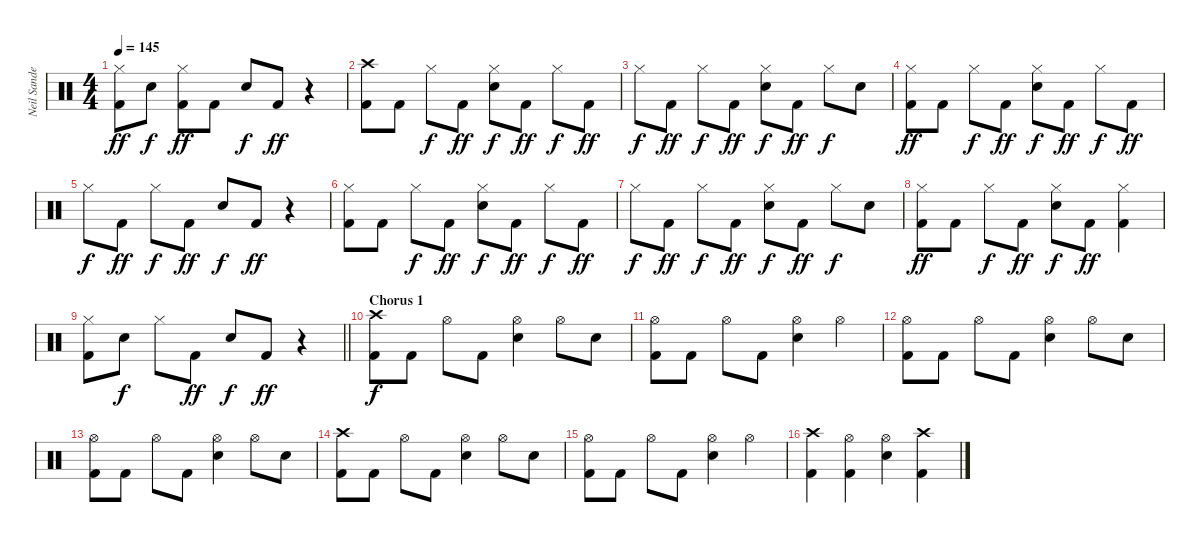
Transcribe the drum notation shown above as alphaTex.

\track ("Neil Sanderson" "Neil Sande") {instrument percussion}
\staff {score}
\articulation defaults
\ts (4 4)
\tempo 145
\clef neutral
\ks c
("Hi-Hat (closed)" "Kick (hit) 2").8{dy ff} "Electric Snare (hit)".8{dy f} ("Hi-Hat (closed)" "Kick (hit) 2").8{dy ff} "Kick (hit) 2".8 "Electric Snare (hit)".8{dy f} "Kick (hit) 2".8{dy ff} r.4 |
("Crash high (hit)" "Kick (hit) 2").8 "Kick (hit) 2".8 "Hi-Hat (closed)".8{dy f} "Kick (hit) 2".8{dy ff} ("Hi-Hat (closed)" "Electric Snare (hit)").8{dy f} "Kick (hit) 2".8{dy ff} "Hi-Hat (closed)".8{dy f} "Kick (hit) 2".8{dy ff} |
"Hi-Hat (closed)".8{dy f} "Kick (hit) 2".8{dy ff} "Hi-Hat (closed)".8{dy f} "Kick (hit) 2".8{dy ff} ("Hi-Hat (closed)" "Electric Snare (hit)").8{dy f} "Kick (hit) 2".8{dy ff} "Hi-Hat (closed)".8{dy f} "Electric Snare (hit)".8 |
("Hi-Hat (closed)" "Kick (hit) 2").8{dy ff} "Kick (hit) 2".8 "Hi-Hat (closed)".8{dy f} "Kick (hit) 2".8{dy ff} ("Hi-Hat (closed)" "Electric Snare (hit)").8{dy f} "Kick (hit) 2".8{dy ff} "Hi-Hat (closed)".8{dy f} "Kick (hit) 2".8{dy ff} |
"Hi-Hat (closed)".8{dy f} "Kick (hit) 2".8{dy ff} "Hi-Hat (closed)".8{dy f} "Kick (hit) 2".8{dy ff} "Electric Snare (hit)".8{dy f} "Kick (hit) 2".8{dy ff} r.4 |
("Hi-Hat (closed)" "Kick (hit) 2").8 "Kick (hit) 2".8 "Hi-Hat (closed)".8{dy f} "Kick (hit) 2".8{dy ff} ("Hi-Hat (closed)" "Electric Snare (hit)").8{dy f} "Kick (hit) 2".8{dy ff} "Hi-Hat (closed)".8{dy f} "Kick (hit) 2".8{dy ff} |
"Hi-Hat (closed)".8{dy f} "Kick (hit) 2".8{dy ff} "Hi-Hat (closed)".8{dy f} "Kick (hit) 2".8{dy ff} ("Hi-Hat (closed)" "Electric Snare (hit)").8{dy f} "Kick (hit) 2".8{dy ff} "Hi-Hat (closed)".8{dy f} "Electric Snare (hit)".8 |
("Hi-Hat (closed)" "Kick (hit) 2").8{dy ff} "Kick (hit) 2".8 "Hi-Hat (closed)".8{dy f} "Kick (hit) 2".8{dy ff} ("Hi-Hat (closed)" "Electric Snare (hit)").8{dy f} "Kick (hit) 2".8{dy ff} ("Hi-Hat (closed)" "Kick (hit) 2").4 |
\barLineRight lightlight
("Hi-Hat (closed)" "Kick (hit) 2").8 "Electric Snare (hit)".8{dy f} "Hi-Hat (closed)".8 "Kick (hit) 2".8{dy ff} "Electric Snare (hit)".8{dy f} "Kick (hit) 2".8{dy ff} r.4 |
\section ("" "Chorus 1")
("Crash high (hit)" "Kick (hit) 2").8{dy f} "Kick (hit) 2".8 "Hi-Hat (open)".8 "Kick (hit) 2".8 ("Hi-Hat (open)" "Electric Snare (hit)").4 "Hi-Hat (open)".8 "Electric Snare (hit)".8 |
("Hi-Hat (open)" "Kick (hit) 2").8 "Kick (hit) 2".8 "Hi-Hat (open)".8 "Kick (hit) 2".8 ("Hi-Hat (open)" "Electric Snare (hit)").4 "Hi-Hat (open)".4 |
("Hi-Hat (open)" "Kick (hit) 2").8 "Kick (hit) 2".8 "Hi-Hat (open)".8 "Kick (hit) 2".8 ("Hi-Hat (open)" "Electric Snare (hit)").4 "Hi-Hat (open)".8 "Electric Snare (hit)".8 |
("Hi-Hat (open)" "Kick (hit) 2").8 "Kick (hit) 2".8 "Hi-Hat (open)".8 "Kick (hit) 2".8 ("Hi-Hat (open)" "Electric Snare (hit)").4 "Hi-Hat (open)".8 "Electric Snare (hit)".8 |
("Crash high (hit)" "Kick (hit) 2").8 "Kick (hit) 2".8 "Hi-Hat (open)".8 "Kick (hit) 2".8 ("Hi-Hat (open)" "Electric Snare (hit)").4 "Hi-Hat (open)".8 "Electric Snare (hit)".8 |
("Hi-Hat (open)" "Kick (hit) 2").8 "Kick (hit) 2".8 "Hi-Hat (open)".8 "Kick (hit) 2".8 ("Hi-Hat (open)" "Electric Snare (hit)").4 "Hi-Hat (open)".4 |
("Crash high (hit)" "Kick (hit) 2").4 ("Hi-Hat (open)" "Kick (hit) 2").4 ("Hi-Hat (open)" "Electric Snare (hit)").4 ("Crash high (hit)" "Kick (hit) 2").4
